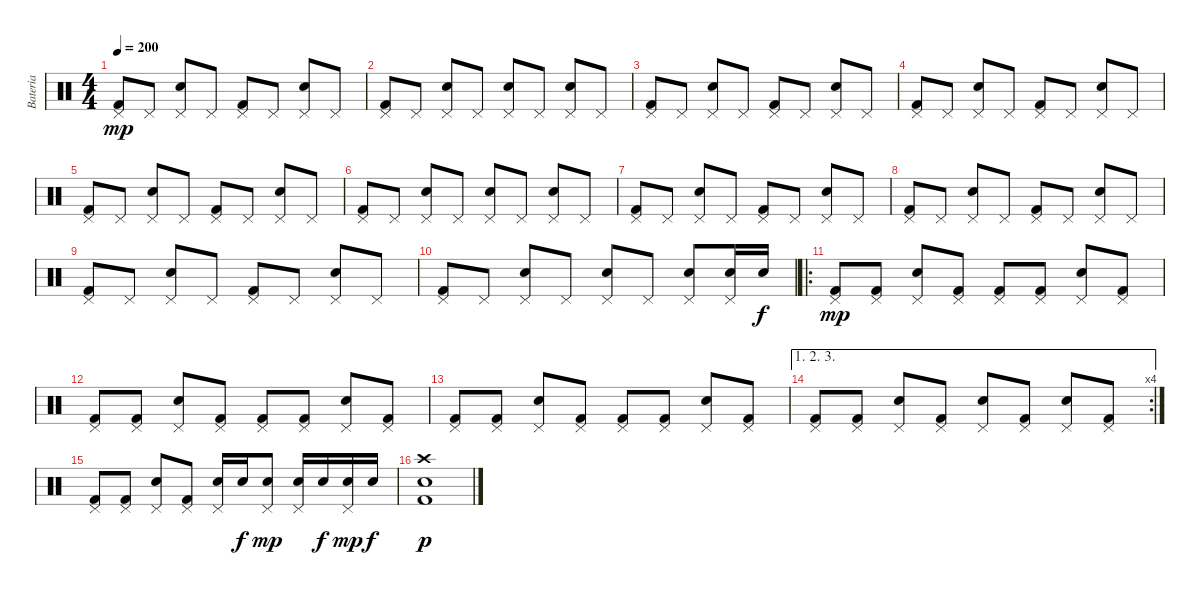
\track ("Bateria" "Bateria") {instrument percussion}
\staff {score}
\articulation defaults
\ts (4 4)
\tempo 200
\clef neutral
\ks c
("Pedal Hi-Hat (hit)" "Kick (hit) 2").8{dy mp} "Pedal Hi-Hat (hit)".8 ("Pedal Hi-Hat (hit)" "Electric Snare (hit)").8 "Pedal Hi-Hat (hit)".8 ("Pedal Hi-Hat (hit)" "Kick (hit) 2").8 "Pedal Hi-Hat (hit)".8 ("Pedal Hi-Hat (hit)" "Electric Snare (hit)").8 "Pedal Hi-Hat (hit)".8 |
("Pedal Hi-Hat (hit)" "Kick (hit) 2").8 "Pedal Hi-Hat (hit)".8 ("Pedal Hi-Hat (hit)" "Electric Snare (hit)").8 "Pedal Hi-Hat (hit)".8 ("Pedal Hi-Hat (hit)" "Electric Snare (hit)").8 "Pedal Hi-Hat (hit)".8 ("Pedal Hi-Hat (hit)" "Electric Snare (hit)").8 "Pedal Hi-Hat (hit)".8 |
("Pedal Hi-Hat (hit)" "Kick (hit) 2").8 "Pedal Hi-Hat (hit)".8 ("Pedal Hi-Hat (hit)" "Electric Snare (hit)").8 "Pedal Hi-Hat (hit)".8 ("Pedal Hi-Hat (hit)" "Kick (hit) 2").8 "Pedal Hi-Hat (hit)".8 ("Pedal Hi-Hat (hit)" "Electric Snare (hit)").8 "Pedal Hi-Hat (hit)".8 |
("Pedal Hi-Hat (hit)" "Kick (hit) 2").8 "Pedal Hi-Hat (hit)".8 ("Pedal Hi-Hat (hit)" "Electric Snare (hit)").8 "Pedal Hi-Hat (hit)".8 ("Pedal Hi-Hat (hit)" "Kick (hit) 2").8 "Pedal Hi-Hat (hit)".8 ("Pedal Hi-Hat (hit)" "Electric Snare (hit)").8 "Pedal Hi-Hat (hit)".8 |
("Pedal Hi-Hat (hit)" "Kick (hit) 2").8 "Pedal Hi-Hat (hit)".8 ("Pedal Hi-Hat (hit)" "Electric Snare (hit)").8 "Pedal Hi-Hat (hit)".8 ("Pedal Hi-Hat (hit)" "Kick (hit) 2").8 "Pedal Hi-Hat (hit)".8 ("Pedal Hi-Hat (hit)" "Electric Snare (hit)").8 "Pedal Hi-Hat (hit)".8 |
("Pedal Hi-Hat (hit)" "Kick (hit) 2").8 "Pedal Hi-Hat (hit)".8 ("Pedal Hi-Hat (hit)" "Electric Snare (hit)").8 "Pedal Hi-Hat (hit)".8 ("Pedal Hi-Hat (hit)" "Electric Snare (hit)").8 "Pedal Hi-Hat (hit)".8 ("Pedal Hi-Hat (hit)" "Electric Snare (hit)").8 "Pedal Hi-Hat (hit)".8 |
("Pedal Hi-Hat (hit)" "Kick (hit) 2").8 "Pedal Hi-Hat (hit)".8 ("Pedal Hi-Hat (hit)" "Electric Snare (hit)").8 "Pedal Hi-Hat (hit)".8 ("Pedal Hi-Hat (hit)" "Kick (hit) 2").8 "Pedal Hi-Hat (hit)".8 ("Pedal Hi-Hat (hit)" "Electric Snare (hit)").8 "Pedal Hi-Hat (hit)".8 |
("Pedal Hi-Hat (hit)" "Kick (hit) 2").8 "Pedal Hi-Hat (hit)".8 ("Pedal Hi-Hat (hit)" "Electric Snare (hit)").8 "Pedal Hi-Hat (hit)".8 ("Pedal Hi-Hat (hit)" "Kick (hit) 2").8 "Pedal Hi-Hat (hit)".8 ("Pedal Hi-Hat (hit)" "Electric Snare (hit)").8 "Pedal Hi-Hat (hit)".8 |
("Pedal Hi-Hat (hit)" "Kick (hit) 2").8 "Pedal Hi-Hat (hit)".8 ("Pedal Hi-Hat (hit)" "Electric Snare (hit)").8 "Pedal Hi-Hat (hit)".8 ("Pedal Hi-Hat (hit)" "Kick (hit) 2").8 "Pedal Hi-Hat (hit)".8 ("Pedal Hi-Hat (hit)" "Electric Snare (hit)").8 "Pedal Hi-Hat (hit)".8 |
("Pedal Hi-Hat (hit)" "Kick (hit) 2").8 "Pedal Hi-Hat (hit)".8 ("Pedal Hi-Hat (hit)" "Electric Snare (hit)").8 "Pedal Hi-Hat (hit)".8 ("Pedal Hi-Hat (hit)" "Electric Snare (hit)").8 "Pedal Hi-Hat (hit)".8 ("Pedal Hi-Hat (hit)" "Electric Snare (hit)").8 ("Pedal Hi-Hat (hit)" "Electric Snare (hit)").16 "Electric Snare (hit)".16{dy f} |
\ro
("Pedal Hi-Hat (hit)" "Kick (hit) 2").8{dy mp} ("Pedal Hi-Hat (hit)" "Kick (hit) 2").8 ("Pedal Hi-Hat (hit)" "Electric Snare (hit)").8 ("Pedal Hi-Hat (hit)" "Kick (hit) 2").8 ("Pedal Hi-Hat (hit)" "Kick (hit) 2").8 ("Pedal Hi-Hat (hit)" "Kick (hit) 2").8 ("Pedal Hi-Hat (hit)" "Electric Snare (hit)").8 ("Pedal Hi-Hat (hit)" "Kick (hit) 2").8 |
("Pedal Hi-Hat (hit)" "Kick (hit) 2").8 ("Pedal Hi-Hat (hit)" "Kick (hit) 2").8 ("Pedal Hi-Hat (hit)" "Electric Snare (hit)").8 ("Pedal Hi-Hat (hit)" "Kick (hit) 2").8 ("Pedal Hi-Hat (hit)" "Kick (hit) 2").8 ("Pedal Hi-Hat (hit)" "Kick (hit) 2").8 ("Pedal Hi-Hat (hit)" "Electric Snare (hit)").8 ("Pedal Hi-Hat (hit)" "Kick (hit) 2").8 |
("Pedal Hi-Hat (hit)" "Kick (hit) 2").8 ("Pedal Hi-Hat (hit)" "Kick (hit) 2").8 ("Pedal Hi-Hat (hit)" "Electric Snare (hit)").8 ("Pedal Hi-Hat (hit)" "Kick (hit) 2").8 ("Pedal Hi-Hat (hit)" "Kick (hit) 2").8 ("Pedal Hi-Hat (hit)" "Kick (hit) 2").8 ("Pedal Hi-Hat (hit)" "Electric Snare (hit)").8 ("Pedal Hi-Hat (hit)" "Kick (hit) 2").8 |
\ae (1 2 3)
\rc 4
("Pedal Hi-Hat (hit)" "Kick (hit) 2").8 ("Pedal Hi-Hat (hit)" "Kick (hit) 2").8 ("Pedal Hi-Hat (hit)" "Electric Snare (hit)").8 ("Pedal Hi-Hat (hit)" "Kick (hit) 2").8 ("Pedal Hi-Hat (hit)" "Electric Snare (hit)").8 ("Pedal Hi-Hat (hit)" "Kick (hit) 2").8 ("Pedal Hi-Hat (hit)" "Electric Snare (hit)").8 ("Pedal Hi-Hat (hit)" "Kick (hit) 2").8 |
("Pedal Hi-Hat (hit)" "Kick (hit) 2").8 ("Pedal Hi-Hat (hit)" "Kick (hit) 2").8 ("Pedal Hi-Hat (hit)" "Electric Snare (hit)").8 ("Pedal Hi-Hat (hit)" "Kick (hit) 2").8 ("Pedal Hi-Hat (hit)" "Electric Snare (hit)").16 "Electric Snare (hit)".16{dy f} ("Pedal Hi-Hat (hit)" "Electric Snare (hit)").8{dy mp} ("Pedal Hi-Hat (hit)" "Electric Snare (hit)").16 "Electric Snare (hit)".16{dy f} ("Pedal Hi-Hat (hit)" "Electric Snare (hit)").16{dy mp} "Electric Snare (hit)".16{dy f} |
("Crash high (hit)" "Electric Snare (hit)" "Kick (hit) 2").1{dy p}
